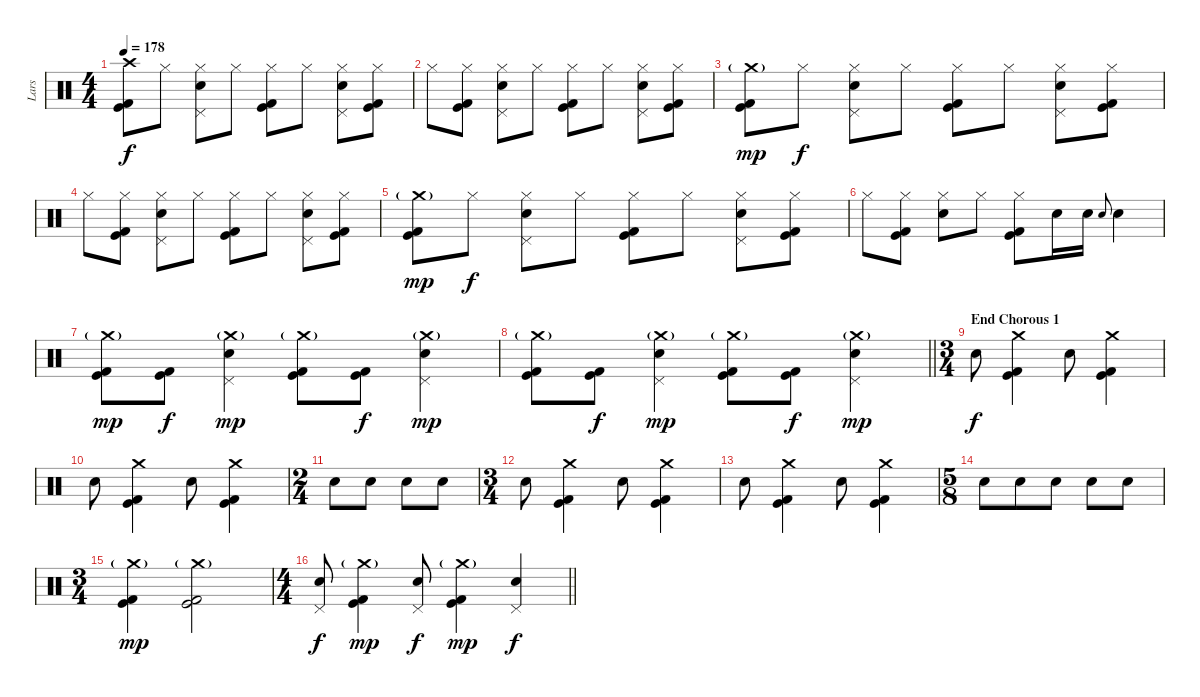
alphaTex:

\track ("Lars" "Lars") {instrument percussion}
\staff {score}
\articulation defaults
\ts (4 4)
\tempo 178
\clef neutral
\ks c
("Crash high (hit)" "Kick (hit)" "Kick (hit) 2").8{dy f} "Hi-Hat (closed)".8 ("Hi-Hat (closed)" "Pedal Hi-Hat (hit)" "Electric Snare (hit)").8 "Hi-Hat (closed)".8 ("Hi-Hat (closed)" "Kick (hit)" "Kick (hit) 2").8 "Hi-Hat (closed)".8 ("Hi-Hat (closed)" "Pedal Hi-Hat (hit)" "Electric Snare (hit)").8 ("Hi-Hat (closed)" "Kick (hit)" "Kick (hit) 2").8 |
"Hi-Hat (closed)".8 ("Hi-Hat (closed)" "Kick (hit)" "Kick (hit) 2").8 ("Hi-Hat (closed)" "Pedal Hi-Hat (hit)" "Electric Snare (hit)").8 "Hi-Hat (closed)".8 ("Hi-Hat (closed)" "Kick (hit)" "Kick (hit) 2").8 "Hi-Hat (closed)".8 ("Hi-Hat (closed)" "Pedal Hi-Hat (hit)" "Electric Snare (hit)").8 ("Hi-Hat (closed)" "Kick (hit)" "Kick (hit) 2").8 |
("Crash medium (hit)"{g} "Kick (hit)" "Kick (hit) 2").8{dy mp} "Hi-Hat (closed)".8{dy f} ("Hi-Hat (closed)" "Pedal Hi-Hat (hit)" "Electric Snare (hit)").8 "Hi-Hat (closed)".8 ("Hi-Hat (closed)" "Kick (hit)" "Kick (hit) 2").8 "Hi-Hat (closed)".8 ("Hi-Hat (closed)" "Pedal Hi-Hat (hit)" "Electric Snare (hit)").8 ("Hi-Hat (closed)" "Kick (hit)" "Kick (hit) 2").8 |
"Hi-Hat (closed)".8 ("Hi-Hat (closed)" "Kick (hit)" "Kick (hit) 2").8 ("Hi-Hat (closed)" "Pedal Hi-Hat (hit)" "Electric Snare (hit)").8 "Hi-Hat (closed)".8 ("Hi-Hat (closed)" "Kick (hit)" "Kick (hit) 2").8 "Hi-Hat (closed)".8 ("Hi-Hat (closed)" "Pedal Hi-Hat (hit)" "Electric Snare (hit)").8 ("Hi-Hat (closed)" "Kick (hit)" "Kick (hit) 2").8 |
("Crash medium (hit)"{g} "Kick (hit)" "Kick (hit) 2").8{dy mp} "Hi-Hat (closed)".8{dy f} ("Hi-Hat (closed)" "Pedal Hi-Hat (hit)" "Electric Snare (hit)").8 "Hi-Hat (closed)".8 ("Hi-Hat (closed)" "Kick (hit)" "Kick (hit) 2").8 "Hi-Hat (closed)".8 ("Hi-Hat (closed)" "Pedal Hi-Hat (hit)" "Electric Snare (hit)").8 ("Hi-Hat (closed)" "Kick (hit)" "Kick (hit) 2").8 |
"Hi-Hat (closed)".8 ("Hi-Hat (closed)" "Kick (hit)" "Kick (hit) 2").8 ("Hi-Hat (closed)" "Electric Snare (hit)").8 "Hi-Hat (closed)".8 ("Hi-Hat (closed)" "Kick (hit)" "Kick (hit) 2").8 "Electric Snare (hit)".16 "Electric Snare (hit)".16 "Electric Snare (hit)".8{gr onbeat} "Electric Snare (hit)".4 |
("Crash medium (hit)"{g} "Kick (hit)" "Kick (hit) 2").8{dy mp} ("Kick (hit)" "Kick (hit) 2").8{dy f} ("Crash medium (hit)"{g} "Pedal Hi-Hat (hit)" "Electric Snare (hit)").4{dy mp} ("Crash medium (hit)"{g} "Kick (hit)" "Kick (hit) 2").8 ("Kick (hit)" "Kick (hit) 2").8{dy f} ("Crash medium (hit)"{g} "Pedal Hi-Hat (hit)" "Electric Snare (hit)").4{dy mp} |
\barLineRight lightlight
("Crash medium (hit)"{g} "Kick (hit)" "Kick (hit) 2").8 ("Kick (hit)" "Kick (hit) 2").8{dy f} ("Crash medium (hit)"{g} "Pedal Hi-Hat (hit)" "Electric Snare (hit)").4{dy mp} ("Crash medium (hit)"{g} "Kick (hit)" "Kick (hit) 2").8 ("Kick (hit)" "Kick (hit) 2").8{dy f} ("Crash medium (hit)"{g} "Pedal Hi-Hat (hit)" "Electric Snare (hit)").4{dy mp} |
\ts (3 4)
\section ("" "End Chorous 1")
"Electric Snare (hit)".8{dy f} ("Crash medium (hit)" "Kick (hit)" "Kick (hit) 2").4 "Electric Snare (hit)".8 ("Crash medium (hit)" "Kick (hit)" "Kick (hit) 2").4 |
"Electric Snare (hit)".8 ("Crash medium (hit)" "Kick (hit)" "Kick (hit) 2").4 "Electric Snare (hit)".8 ("Crash medium (hit)" "Kick (hit)" "Kick (hit) 2").4 |
\ts (2 4)
"Electric Snare (hit)".8 "Electric Snare (hit)".8 "Electric Snare (hit)".8 "Electric Snare (hit)".8 |
\ts (3 4)
"Electric Snare (hit)".8 ("Crash medium (hit)" "Kick (hit)" "Kick (hit) 2").4 "Electric Snare (hit)".8 ("Crash medium (hit)" "Kick (hit)" "Kick (hit) 2").4 |
"Electric Snare (hit)".8 ("Crash medium (hit)" "Kick (hit)" "Kick (hit) 2").4 "Electric Snare (hit)".8 ("Crash medium (hit)" "Kick (hit)" "Kick (hit) 2").4 |
\ts (5 8)
"Electric Snare (hit)".8 "Electric Snare (hit)".8 "Electric Snare (hit)".8 "Electric Snare (hit)".8 "Electric Snare (hit)".8 |
\ts (3 4)
("Crash medium (hit)"{g} "Kick (hit)" "Kick (hit) 2").4{dy mp} ("Crash medium (hit)"{g} "Kick (hit)" "Kick (hit) 2").2 |
\ts (4 4)
\barLineRight lightlight
("Pedal Hi-Hat (hit)" "Electric Snare (hit)").8{dy f} ("Crash medium (hit)"{g} "Kick (hit)" "Kick (hit) 2").4{dy mp} ("Pedal Hi-Hat (hit)" "Electric Snare (hit)").8{dy f} ("Crash medium (hit)"{g} "Kick (hit)" "Kick (hit) 2").4{dy mp} ("Pedal Hi-Hat (hit)" "Electric Snare (hit)").4{dy f}
